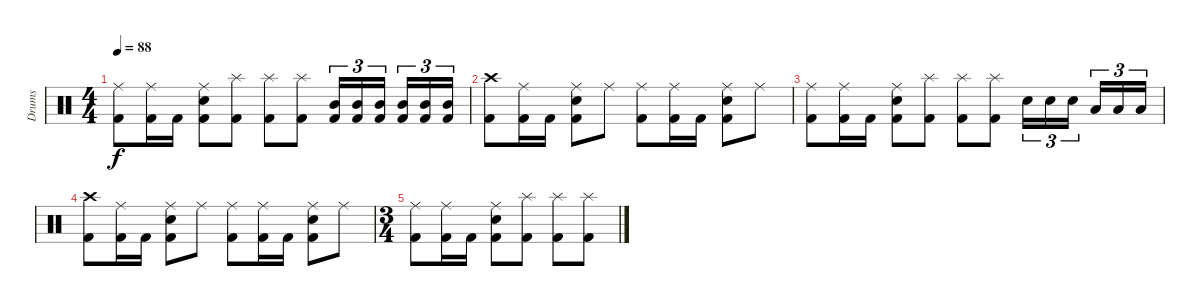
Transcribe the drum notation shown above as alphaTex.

\track ("Drums" "Drums") {instrument percussion}
\staff {score}
\articulation defaults
\ts (4 4)
\tempo 88
\clef neutral
\ks c
("Ride (middle)" "Kick (hit) 2").8{dy f} ("Ride (middle)" "Kick (hit) 2").16 "Kick (hit) 2".16 ("Ride (middle)" "Electric Snare (hit)" "Kick (hit) 2").8 ("Splash (hit)" "Kick (hit) 2").8 ("Splash (hit)" "Kick (hit) 2").8 ("Splash (hit)" "Kick (hit) 2").8 ("Mid Tom (hit)" "Kick (hit) 2").16{tu (3 2)} ("Mid Tom (hit)" "Kick (hit) 2").16{tu (3 2)} ("Mid Tom (hit)" "Kick (hit) 2").16{tu (3 2) beam splitsecondary} ("Mid Tom (hit)" "Kick (hit) 2").16{tu (3 2)} ("Mid Tom (hit)" "Kick (hit) 2").16{tu (3 2)} ("Mid Tom (hit)" "Kick (hit) 2").16{tu (3 2)} |
("Crash high (hit)" "Kick (hit) 2").8 ("Ride (middle)" "Kick (hit) 2").16 "Kick (hit) 2".16 ("Ride (middle)" "Electric Snare (hit)" "Kick (hit) 2").8 "Ride (middle)".8 ("Ride (middle)" "Kick (hit) 2").8 ("Ride (middle)" "Kick (hit) 2").16 "Kick (hit) 2".16 ("Ride (middle)" "Electric Snare (hit)" "Kick (hit) 2").8 "Ride (middle)".8 |
("Ride (middle)" "Kick (hit) 2").8 ("Ride (middle)" "Kick (hit) 2").16 "Kick (hit) 2".16 ("Ride (middle)" "Electric Snare (hit)" "Kick (hit) 2").8 ("Splash (hit)" "Kick (hit) 2").8 ("Splash (hit)" "Kick (hit) 2").8 ("Splash (hit)" "Kick (hit) 2").8 "Electric Snare (hit)".16{tu (3 2)} "Electric Snare (hit)".16{tu (3 2)} "Electric Snare (hit)".16{tu (3 2) beam splitsecondary} "Low Tom (hit)".16{tu (3 2)} "Low Tom (hit)".16{tu (3 2)} "Low Tom (hit)".16{tu (3 2)} |
("Crash high (hit)" "Kick (hit) 2").8 ("Ride (middle)" "Kick (hit) 2").16 "Kick (hit) 2".16 ("Ride (middle)" "Electric Snare (hit)" "Kick (hit) 2").8 "Ride (middle)".8 ("Ride (middle)" "Kick (hit) 2").8 ("Ride (middle)" "Kick (hit) 2").16 "Kick (hit) 2".16 ("Ride (middle)" "Electric Snare (hit)" "Kick (hit) 2").8 "Ride (middle)".8 |
\ts (3 4)
("Ride (middle)" "Kick (hit) 2").8 ("Ride (middle)" "Kick (hit) 2").16 "Kick (hit) 2".16 ("Ride (middle)" "Electric Snare (hit)" "Kick (hit) 2").8 ("Splash (hit)" "Kick (hit) 2").8 ("Splash (hit)" "Kick (hit) 2").8 ("Splash (hit)" "Kick (hit) 2").8
